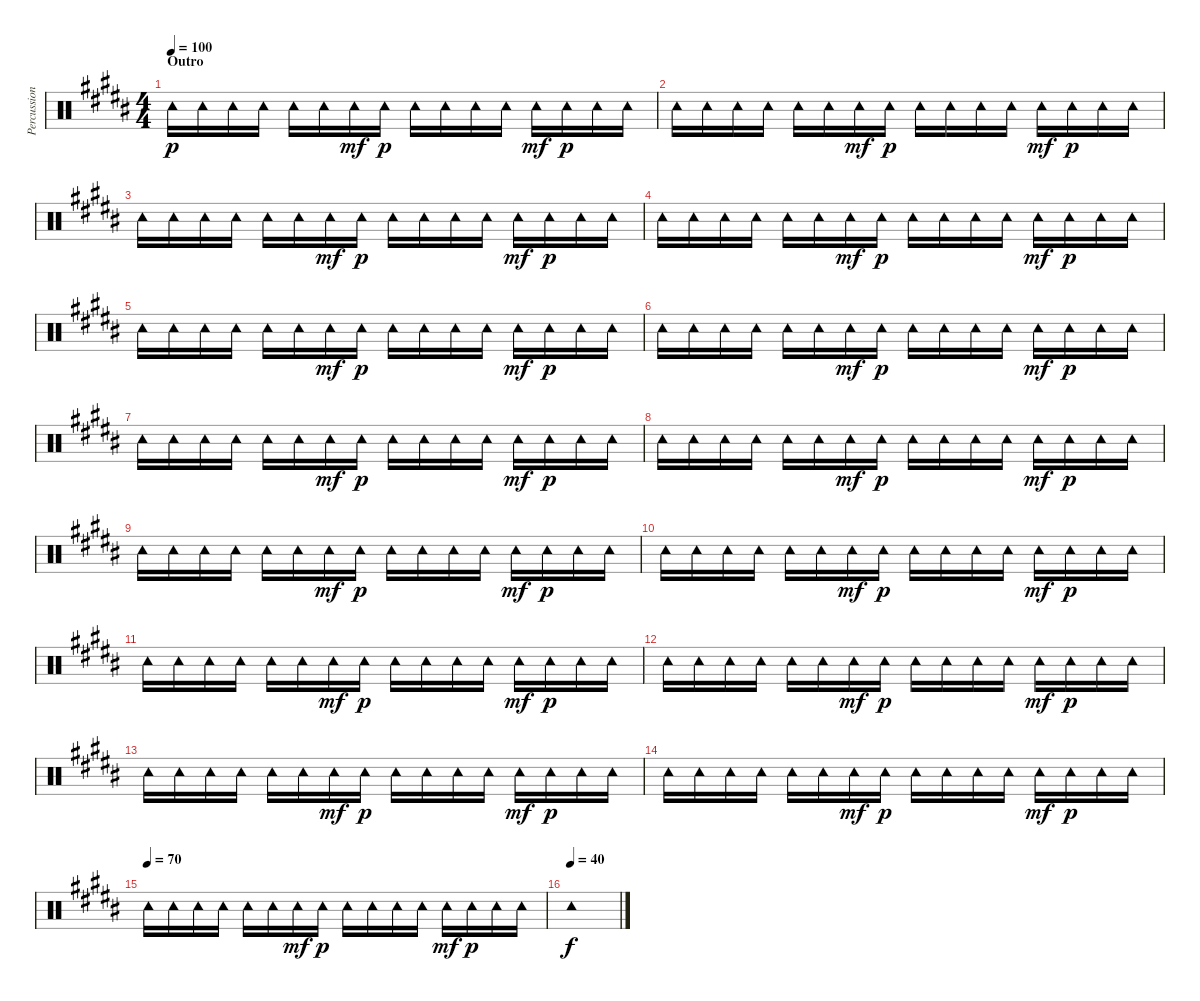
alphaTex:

\track ("Percussion" "Percussion") {instrument percussion}
\staff {score}
\articulation defaults
\ts (4 4)
\section ("" "Outro")
\tempo 100
\clef neutral
\ks b "Tambourine (hit)".16{dy p} "Tambourine (hit)".16 "Tambourine (hit)".16 "Tambourine (hit)".16 "Tambourine (hit)".16 "Tambourine (hit)".16 "Tambourine (hit)".16{dy mf} "Tambourine (hit)".16{dy p} "Tambourine (hit)".16 "Tambourine (hit)".16 "Tambourine (hit)".16 "Tambourine (hit)".16 "Tambourine (hit)".16{dy mf} "Tambourine (hit)".16{dy p} "Tambourine (hit)".16 "Tambourine (hit)".16
|
"Tambourine (hit)".16 "Tambourine (hit)".16 "Tambourine (hit)".16 "Tambourine (hit)".16 "Tambourine (hit)".16 "Tambourine (hit)".16 "Tambourine (hit)".16{dy mf} "Tambourine (hit)".16{dy p} "Tambourine (hit)".16 "Tambourine (hit)".16 "Tambourine (hit)".16 "Tambourine (hit)".16 "Tambourine (hit)".16{dy mf} "Tambourine (hit)".16{dy p} "Tambourine (hit)".16 "Tambourine (hit)".16 |
"Tambourine (hit)".16 "Tambourine (hit)".16 "Tambourine (hit)".16 "Tambourine (hit)".16 "Tambourine (hit)".16 "Tambourine (hit)".16 "Tambourine (hit)".16{dy mf} "Tambourine (hit)".16{dy p} "Tambourine (hit)".16 "Tambourine (hit)".16 "Tambourine (hit)".16 "Tambourine (hit)".16 "Tambourine (hit)".16{dy mf} "Tambourine (hit)".16{dy p} "Tambourine (hit)".16 "Tambourine (hit)".16 |
"Tambourine (hit)".16 "Tambourine (hit)".16 "Tambourine (hit)".16 "Tambourine (hit)".16 "Tambourine (hit)".16 "Tambourine (hit)".16 "Tambourine (hit)".16{dy mf} "Tambourine (hit)".16{dy p} "Tambourine (hit)".16 "Tambourine (hit)".16 "Tambourine (hit)".16 "Tambourine (hit)".16 "Tambourine (hit)".16{dy mf} "Tambourine (hit)".16{dy p} "Tambourine (hit)".16 "Tambourine (hit)".16 |
"Tambourine (hit)".16 "Tambourine (hit)".16 "Tambourine (hit)".16 "Tambourine (hit)".16 "Tambourine (hit)".16 "Tambourine (hit)".16 "Tambourine (hit)".16{dy mf} "Tambourine (hit)".16{dy p} "Tambourine (hit)".16 "Tambourine (hit)".16 "Tambourine (hit)".16 "Tambourine (hit)".16 "Tambourine (hit)".16{dy mf} "Tambourine (hit)".16{dy p} "Tambourine (hit)".16 "Tambourine (hit)".16 |
"Tambourine (hit)".16 "Tambourine (hit)".16 "Tambourine (hit)".16 "Tambourine (hit)".16 "Tambourine (hit)".16 "Tambourine (hit)".16 "Tambourine (hit)".16{dy mf} "Tambourine (hit)".16{dy p} "Tambourine (hit)".16 "Tambourine (hit)".16 "Tambourine (hit)".16 "Tambourine (hit)".16 "Tambourine (hit)".16{dy mf} "Tambourine (hit)".16{dy p} "Tambourine (hit)".16 "Tambourine (hit)".16 |
"Tambourine (hit)".16 "Tambourine (hit)".16 "Tambourine (hit)".16 "Tambourine (hit)".16 "Tambourine (hit)".16 "Tambourine (hit)".16 "Tambourine (hit)".16{dy mf} "Tambourine (hit)".16{dy p} "Tambourine (hit)".16 "Tambourine (hit)".16 "Tambourine (hit)".16 "Tambourine (hit)".16 "Tambourine (hit)".16{dy mf} "Tambourine (hit)".16{dy p} "Tambourine (hit)".16 "Tambourine (hit)".16 |
"Tambourine (hit)".16 "Tambourine (hit)".16 "Tambourine (hit)".16 "Tambourine (hit)".16 "Tambourine (hit)".16 "Tambourine (hit)".16 "Tambourine (hit)".16{dy mf} "Tambourine (hit)".16{dy p} "Tambourine (hit)".16 "Tambourine (hit)".16 "Tambourine (hit)".16 "Tambourine (hit)".16 "Tambourine (hit)".16{dy mf} "Tambourine (hit)".16{dy p} "Tambourine (hit)".16 "Tambourine (hit)".16 |
"Tambourine (hit)".16 "Tambourine (hit)".16 "Tambourine (hit)".16 "Tambourine (hit)".16 "Tambourine (hit)".16 "Tambourine (hit)".16 "Tambourine (hit)".16{dy mf} "Tambourine (hit)".16{dy p} "Tambourine (hit)".16 "Tambourine (hit)".16 "Tambourine (hit)".16 "Tambourine (hit)".16 "Tambourine (hit)".16{dy mf} "Tambourine (hit)".16{dy p} "Tambourine (hit)".16 "Tambourine (hit)".16 |
"Tambourine (hit)".16 "Tambourine (hit)".16 "Tambourine (hit)".16 "Tambourine (hit)".16 "Tambourine (hit)".16 "Tambourine (hit)".16 "Tambourine (hit)".16{dy mf} "Tambourine (hit)".16{dy p} "Tambourine (hit)".16 "Tambourine (hit)".16 "Tambourine (hit)".16 "Tambourine (hit)".16 "Tambourine (hit)".16{dy mf} "Tambourine (hit)".16{dy p} "Tambourine (hit)".16 "Tambourine (hit)".16 |
"Tambourine (hit)".16 "Tambourine (hit)".16 "Tambourine (hit)".16 "Tambourine (hit)".16 "Tambourine (hit)".16 "Tambourine (hit)".16 "Tambourine (hit)".16{dy mf} "Tambourine (hit)".16{dy p} "Tambourine (hit)".16 "Tambourine (hit)".16 "Tambourine (hit)".16 "Tambourine (hit)".16 "Tambourine (hit)".16{dy mf} "Tambourine (hit)".16{dy p} "Tambourine (hit)".16 "Tambourine (hit)".16 |
"Tambourine (hit)".16 "Tambourine (hit)".16 "Tambourine (hit)".16 "Tambourine (hit)".16 "Tambourine (hit)".16 "Tambourine (hit)".16 "Tambourine (hit)".16{dy mf} "Tambourine (hit)".16{dy p} "Tambourine (hit)".16 "Tambourine (hit)".16 "Tambourine (hit)".16 "Tambourine (hit)".16 "Tambourine (hit)".16{dy mf} "Tambourine (hit)".16{dy p} "Tambourine (hit)".16 "Tambourine (hit)".16 |
"Tambourine (hit)".16 "Tambourine (hit)".16 "Tambourine (hit)".16 "Tambourine (hit)".16 "Tambourine (hit)".16 "Tambourine (hit)".16 "Tambourine (hit)".16{dy mf} "Tambourine (hit)".16{dy p} "Tambourine (hit)".16 "Tambourine (hit)".16 "Tambourine (hit)".16 "Tambourine (hit)".16 "Tambourine (hit)".16{dy mf} "Tambourine (hit)".16{dy p} "Tambourine (hit)".16 "Tambourine (hit)".16 |
"Tambourine (hit)".16 "Tambourine (hit)".16 "Tambourine (hit)".16 "Tambourine (hit)".16 "Tambourine (hit)".16 "Tambourine (hit)".16 "Tambourine (hit)".16{dy mf} "Tambourine (hit)".16{dy p} "Tambourine (hit)".16 "Tambourine (hit)".16 "Tambourine (hit)".16 "Tambourine (hit)".16 "Tambourine (hit)".16{dy mf} "Tambourine (hit)".16{dy p} "Tambourine (hit)".16 "Tambourine (hit)".16 |
\tempo (70)
"Tambourine (hit)".16 "Tambourine (hit)".16 "Tambourine (hit)".16 "Tambourine (hit)".16 "Tambourine (hit)".16 "Tambourine (hit)".16 "Tambourine (hit)".16{dy mf} "Tambourine (hit)".16{dy p} "Tambourine (hit)".16 "Tambourine (hit)".16 "Tambourine (hit)".16 "Tambourine (hit)".16 "Tambourine (hit)".16{dy mf} "Tambourine (hit)".16{dy p} "Tambourine (hit)".16 "Tambourine (hit)".16 |
\tempo (40)
"Tambourine (hit)".1{dy f}
